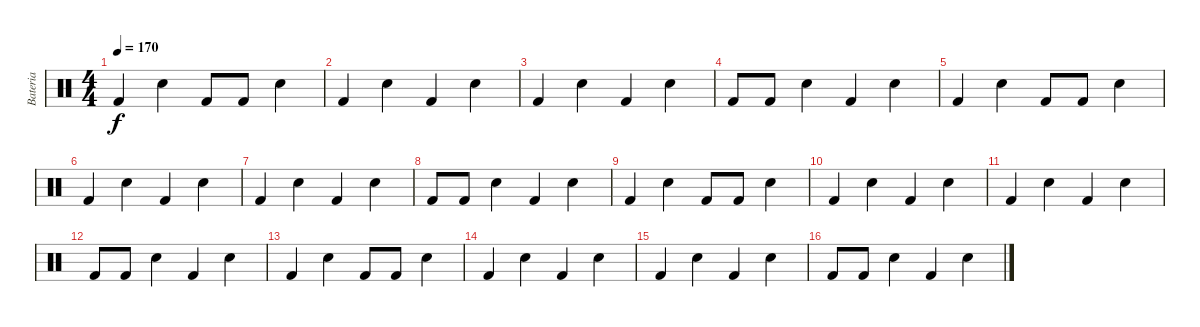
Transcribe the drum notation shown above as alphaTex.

\track ("Bateria" "Bateria") {instrument percussion}
\staff {score}
\articulation defaults
\ts (4 4)
\tempo 170
\clef neutral
\ks c "Kick (hit) 2".4{dy f} "Electric Snare (hit)".4 "Kick (hit) 2".8 "Kick (hit) 2".8 "Electric Snare (hit)".4
|
"Kick (hit) 2".4 "Electric Snare (hit)".4 "Kick (hit) 2".4 "Electric Snare (hit)".4 |
"Kick (hit) 2".4 "Electric Snare (hit)".4 "Kick (hit) 2".4 "Electric Snare (hit)".4 |
"Kick (hit) 2".8 "Kick (hit) 2".8 "Electric Snare (hit)".4 "Kick (hit) 2".4 "Electric Snare (hit)".4 |
"Kick (hit) 2".4 "Electric Snare (hit)".4 "Kick (hit) 2".8 "Kick (hit) 2".8 "Electric Snare (hit)".4 |
"Kick (hit) 2".4 "Electric Snare (hit)".4 "Kick (hit) 2".4 "Electric Snare (hit)".4 |
"Kick (hit) 2".4 "Electric Snare (hit)".4 "Kick (hit) 2".4 "Electric Snare (hit)".4 |
"Kick (hit) 2".8 "Kick (hit) 2".8 "Electric Snare (hit)".4 "Kick (hit) 2".4 "Electric Snare (hit)".4 |
"Kick (hit) 2".4 "Electric Snare (hit)".4 "Kick (hit) 2".8 "Kick (hit) 2".8 "Electric Snare (hit)".4 |
"Kick (hit) 2".4 "Electric Snare (hit)".4 "Kick (hit) 2".4 "Electric Snare (hit)".4 |
"Kick (hit) 2".4 "Electric Snare (hit)".4 "Kick (hit) 2".4 "Electric Snare (hit)".4 |
"Kick (hit) 2".8 "Kick (hit) 2".8 "Electric Snare (hit)".4 "Kick (hit) 2".4 "Electric Snare (hit)".4 |
"Kick (hit) 2".4 "Electric Snare (hit)".4 "Kick (hit) 2".8 "Kick (hit) 2".8 "Electric Snare (hit)".4 |
"Kick (hit) 2".4 "Electric Snare (hit)".4 "Kick (hit) 2".4 "Electric Snare (hit)".4 |
"Kick (hit) 2".4 "Electric Snare (hit)".4 "Kick (hit) 2".4 "Electric Snare (hit)".4 |
"Kick (hit) 2".8 "Kick (hit) 2".8 "Electric Snare (hit)".4 "Kick (hit) 2".4 "Electric Snare (hit)".4
